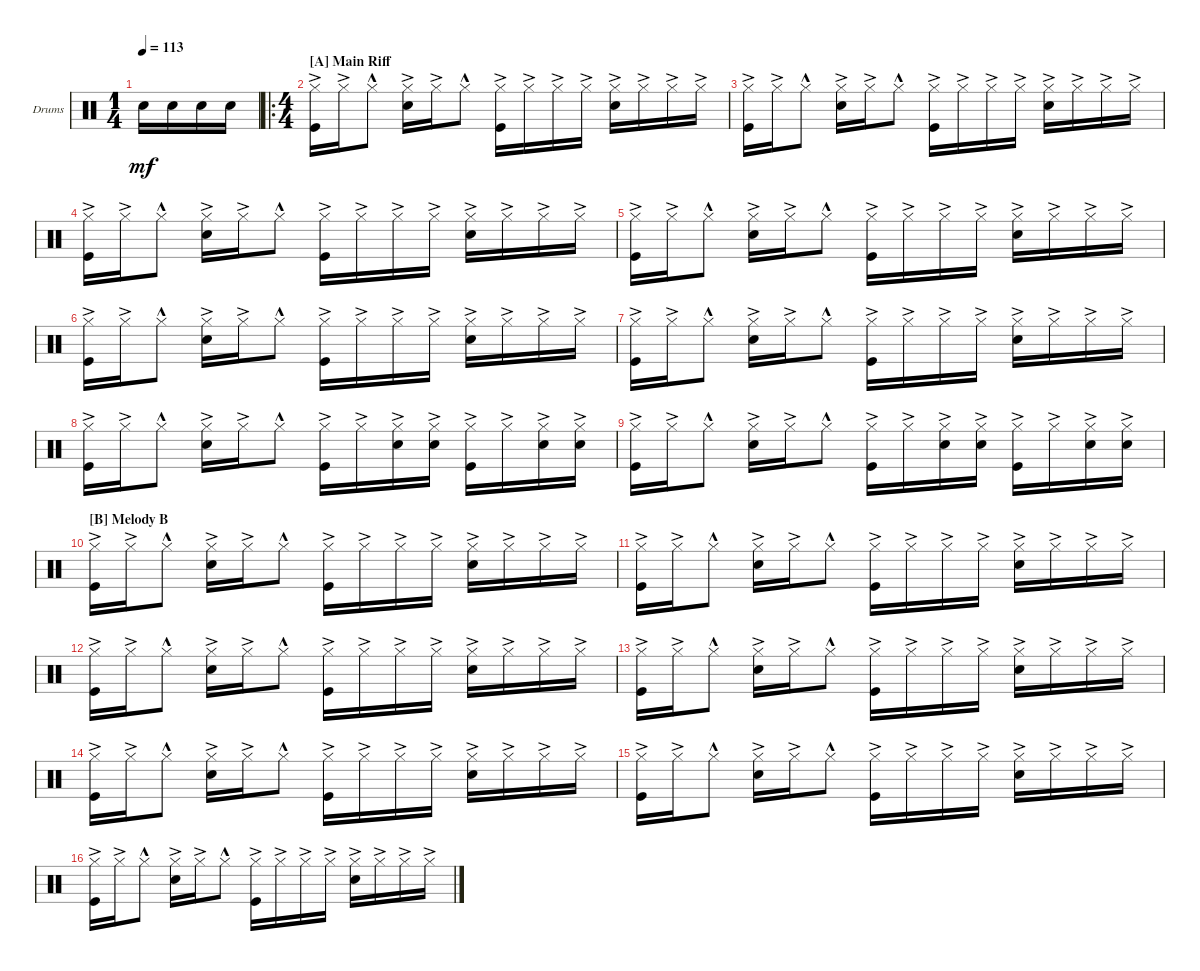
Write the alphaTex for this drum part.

\defaultSystemsLayout 4
\bracketExtendMode groupsimilarinstruments
\firstSystemTrackNameOrientation horizontal
\otherSystemsTrackNameOrientation horizontal
\track ("Drumkit" "Drums") {instrument percussion}
\staff {score}
\articulation defaults
\ts (1 4)
\tempo 113
\clef neutral
\ks c "Snare (hit) 2".16{dy mf} "Snare (hit) 2".16 "Snare (hit) 2".16 "Snare (hit) 2".16
|
\ro
\ts (4 4)
\section ("A" "Main Riff")
("Kick (hit)" "Hi-Hat (closed)"{ac}).16 "Hi-Hat (closed)"{ac}.16 "Hi-Hat (closed)"{hac}.8 ("Hi-Hat (closed)"{ac} "Snare (hit) 2").16 "Hi-Hat (closed)"{ac}.16 "Hi-Hat (closed)"{hac}.8 ("Kick (hit)" "Hi-Hat (closed)"{ac}).16 "Hi-Hat (closed)"{ac}.16 "Hi-Hat (closed)"{ac}.16 "Hi-Hat (closed)"{ac}.16 ("Hi-Hat (closed)"{ac} "Snare (hit) 2").16 "Hi-Hat (closed)"{ac}.16 "Hi-Hat (closed)"{ac}.16 "Hi-Hat (closed)"{ac}.16 |
("Kick (hit)" "Hi-Hat (closed)"{ac}).16 "Hi-Hat (closed)"{ac}.16 "Hi-Hat (closed)"{hac}.8 ("Hi-Hat (closed)"{ac} "Snare (hit) 2").16 "Hi-Hat (closed)"{ac}.16 "Hi-Hat (closed)"{hac}.8 ("Kick (hit)" "Hi-Hat (closed)"{ac}).16 "Hi-Hat (closed)"{ac}.16 "Hi-Hat (closed)"{ac}.16 "Hi-Hat (closed)"{ac}.16 ("Hi-Hat (closed)"{ac} "Snare (hit) 2").16 "Hi-Hat (closed)"{ac}.16 "Hi-Hat (closed)"{ac}.16 "Hi-Hat (closed)"{ac}.16 |
("Kick (hit)" "Hi-Hat (closed)"{ac}).16 "Hi-Hat (closed)"{ac}.16 "Hi-Hat (closed)"{hac}.8 ("Hi-Hat (closed)"{ac} "Snare (hit) 2").16 "Hi-Hat (closed)"{ac}.16 "Hi-Hat (closed)"{hac}.8 ("Kick (hit)" "Hi-Hat (closed)"{ac}).16 "Hi-Hat (closed)"{ac}.16 "Hi-Hat (closed)"{ac}.16 "Hi-Hat (closed)"{ac}.16 ("Hi-Hat (closed)"{ac} "Snare (hit) 2").16 "Hi-Hat (closed)"{ac}.16 "Hi-Hat (closed)"{ac}.16 "Hi-Hat (closed)"{ac}.16 |
("Kick (hit)" "Hi-Hat (closed)"{ac}).16 "Hi-Hat (closed)"{ac}.16 "Hi-Hat (closed)"{hac}.8 ("Hi-Hat (closed)"{ac} "Snare (hit) 2").16 "Hi-Hat (closed)"{ac}.16 "Hi-Hat (closed)"{hac}.8 ("Kick (hit)" "Hi-Hat (closed)"{ac}).16 "Hi-Hat (closed)"{ac}.16 "Hi-Hat (closed)"{ac}.16 "Hi-Hat (closed)"{ac}.16 ("Hi-Hat (closed)"{ac} "Snare (hit) 2").16 "Hi-Hat (closed)"{ac}.16 "Hi-Hat (closed)"{ac}.16 "Hi-Hat (closed)"{ac}.16 |
("Kick (hit)" "Hi-Hat (closed)"{ac}).16 "Hi-Hat (closed)"{ac}.16 "Hi-Hat (closed)"{hac}.8 ("Hi-Hat (closed)"{ac} "Snare (hit) 2").16 "Hi-Hat (closed)"{ac}.16 "Hi-Hat (closed)"{hac}.8 ("Kick (hit)" "Hi-Hat (closed)"{ac}).16 "Hi-Hat (closed)"{ac}.16 "Hi-Hat (closed)"{ac}.16 "Hi-Hat (closed)"{ac}.16 ("Hi-Hat (closed)"{ac} "Snare (hit) 2").16 "Hi-Hat (closed)"{ac}.16 "Hi-Hat (closed)"{ac}.16 "Hi-Hat (closed)"{ac}.16 |
("Kick (hit)" "Hi-Hat (closed)"{ac}).16 "Hi-Hat (closed)"{ac}.16 "Hi-Hat (closed)"{hac}.8 ("Hi-Hat (closed)"{ac} "Snare (hit) 2").16 "Hi-Hat (closed)"{ac}.16 "Hi-Hat (closed)"{hac}.8 ("Kick (hit)" "Hi-Hat (closed)"{ac}).16 "Hi-Hat (closed)"{ac}.16 "Hi-Hat (closed)"{ac}.16 "Hi-Hat (closed)"{ac}.16 ("Hi-Hat (closed)"{ac} "Snare (hit) 2").16 "Hi-Hat (closed)"{ac}.16 "Hi-Hat (closed)"{ac}.16 "Hi-Hat (closed)"{ac}.16 |
("Kick (hit)" "Hi-Hat (closed)"{ac}).16 "Hi-Hat (closed)"{ac}.16 "Hi-Hat (closed)"{hac}.8 ("Hi-Hat (closed)"{ac} "Snare (hit) 2").16 "Hi-Hat (closed)"{ac}.16 "Hi-Hat (closed)"{hac}.8 ("Kick (hit)" "Hi-Hat (closed)"{ac}).16 "Hi-Hat (closed)"{ac}.16 ("Hi-Hat (closed)"{ac} "Snare (hit) 2").16 ("Hi-Hat (closed)"{ac} "Snare (hit) 2").16 ("Kick (hit)" "Hi-Hat (closed)"{ac}).16 "Hi-Hat (closed)"{ac}.16 ("Hi-Hat (closed)"{ac} "Snare (hit) 2").16 ("Hi-Hat (closed)"{ac} "Snare (hit) 2").16 |
("Kick (hit)" "Hi-Hat (closed)"{ac}).16 "Hi-Hat (closed)"{ac}.16 "Hi-Hat (closed)"{hac}.8 ("Hi-Hat (closed)"{ac} "Snare (hit) 2").16 "Hi-Hat (closed)"{ac}.16 "Hi-Hat (closed)"{hac}.8 ("Kick (hit)" "Hi-Hat (closed)"{ac}).16 "Hi-Hat (closed)"{ac}.16 ("Hi-Hat (closed)"{ac} "Snare (hit) 2").16 ("Hi-Hat (closed)"{ac} "Snare (hit) 2").16 ("Kick (hit)" "Hi-Hat (closed)"{ac}).16 "Hi-Hat (closed)"{ac}.16 ("Hi-Hat (closed)"{ac} "Snare (hit) 2").16 ("Hi-Hat (closed)"{ac} "Snare (hit) 2").16 |
\section ("B" "Melody B")
("Kick (hit)" "Hi-Hat (closed)"{ac}).16 "Hi-Hat (closed)"{ac}.16 "Hi-Hat (closed)"{hac}.8 ("Hi-Hat (closed)"{ac} "Snare (hit) 2").16 "Hi-Hat (closed)"{ac}.16 "Hi-Hat (closed)"{hac}.8 ("Kick (hit)" "Hi-Hat (closed)"{ac}).16 "Hi-Hat (closed)"{ac}.16 "Hi-Hat (closed)"{ac}.16 "Hi-Hat (closed)"{ac}.16 ("Hi-Hat (closed)"{ac} "Snare (hit) 2").16 "Hi-Hat (closed)"{ac}.16 "Hi-Hat (closed)"{ac}.16 "Hi-Hat (closed)"{ac}.16 |
("Kick (hit)" "Hi-Hat (closed)"{ac}).16 "Hi-Hat (closed)"{ac}.16 "Hi-Hat (closed)"{hac}.8 ("Hi-Hat (closed)"{ac} "Snare (hit) 2").16 "Hi-Hat (closed)"{ac}.16 "Hi-Hat (closed)"{hac}.8 ("Kick (hit)" "Hi-Hat (closed)"{ac}).16 "Hi-Hat (closed)"{ac}.16 "Hi-Hat (closed)"{ac}.16 "Hi-Hat (closed)"{ac}.16 ("Hi-Hat (closed)"{ac} "Snare (hit) 2").16 "Hi-Hat (closed)"{ac}.16 "Hi-Hat (closed)"{ac}.16 "Hi-Hat (closed)"{ac}.16 |
("Kick (hit)" "Hi-Hat (closed)"{ac}).16 "Hi-Hat (closed)"{ac}.16 "Hi-Hat (closed)"{hac}.8 ("Hi-Hat (closed)"{ac} "Snare (hit) 2").16 "Hi-Hat (closed)"{ac}.16 "Hi-Hat (closed)"{hac}.8 ("Kick (hit)" "Hi-Hat (closed)"{ac}).16 "Hi-Hat (closed)"{ac}.16 "Hi-Hat (closed)"{ac}.16 "Hi-Hat (closed)"{ac}.16 ("Hi-Hat (closed)"{ac} "Snare (hit) 2").16 "Hi-Hat (closed)"{ac}.16 "Hi-Hat (closed)"{ac}.16 "Hi-Hat (closed)"{ac}.16 |
("Kick (hit)" "Hi-Hat (closed)"{ac}).16 "Hi-Hat (closed)"{ac}.16 "Hi-Hat (closed)"{hac}.8 ("Hi-Hat (closed)"{ac} "Snare (hit) 2").16 "Hi-Hat (closed)"{ac}.16 "Hi-Hat (closed)"{hac}.8 ("Kick (hit)" "Hi-Hat (closed)"{ac}).16 "Hi-Hat (closed)"{ac}.16 "Hi-Hat (closed)"{ac}.16 "Hi-Hat (closed)"{ac}.16 ("Hi-Hat (closed)"{ac} "Snare (hit) 2").16 "Hi-Hat (closed)"{ac}.16 "Hi-Hat (closed)"{ac}.16 "Hi-Hat (closed)"{ac}.16 |
("Kick (hit)" "Hi-Hat (closed)"{ac}).16 "Hi-Hat (closed)"{ac}.16 "Hi-Hat (closed)"{hac}.8 ("Hi-Hat (closed)"{ac} "Snare (hit) 2").16 "Hi-Hat (closed)"{ac}.16 "Hi-Hat (closed)"{hac}.8 ("Kick (hit)" "Hi-Hat (closed)"{ac}).16 "Hi-Hat (closed)"{ac}.16 "Hi-Hat (closed)"{ac}.16 "Hi-Hat (closed)"{ac}.16 ("Hi-Hat (closed)"{ac} "Snare (hit) 2").16 "Hi-Hat (closed)"{ac}.16 "Hi-Hat (closed)"{ac}.16 "Hi-Hat (closed)"{ac}.16 |
("Kick (hit)" "Hi-Hat (closed)"{ac}).16 "Hi-Hat (closed)"{ac}.16 "Hi-Hat (closed)"{hac}.8 ("Hi-Hat (closed)"{ac} "Snare (hit) 2").16 "Hi-Hat (closed)"{ac}.16 "Hi-Hat (closed)"{hac}.8 ("Kick (hit)" "Hi-Hat (closed)"{ac}).16 "Hi-Hat (closed)"{ac}.16 "Hi-Hat (closed)"{ac}.16 "Hi-Hat (closed)"{ac}.16 ("Hi-Hat (closed)"{ac} "Snare (hit) 2").16 "Hi-Hat (closed)"{ac}.16 "Hi-Hat (closed)"{ac}.16 "Hi-Hat (closed)"{ac}.16 |
("Kick (hit)" "Hi-Hat (closed)"{ac}).16 "Hi-Hat (closed)"{ac}.16 "Hi-Hat (closed)"{hac}.8 ("Hi-Hat (closed)"{ac} "Snare (hit) 2").16 "Hi-Hat (closed)"{ac}.16 "Hi-Hat (closed)"{hac}.8 ("Kick (hit)" "Hi-Hat (closed)"{ac}).16 "Hi-Hat (closed)"{ac}.16 "Hi-Hat (closed)"{ac}.16 "Hi-Hat (closed)"{ac}.16 ("Hi-Hat (closed)"{ac} "Snare (hit) 2").16 "Hi-Hat (closed)"{ac}.16 "Hi-Hat (closed)"{ac}.16 "Hi-Hat (closed)"{ac}.16
